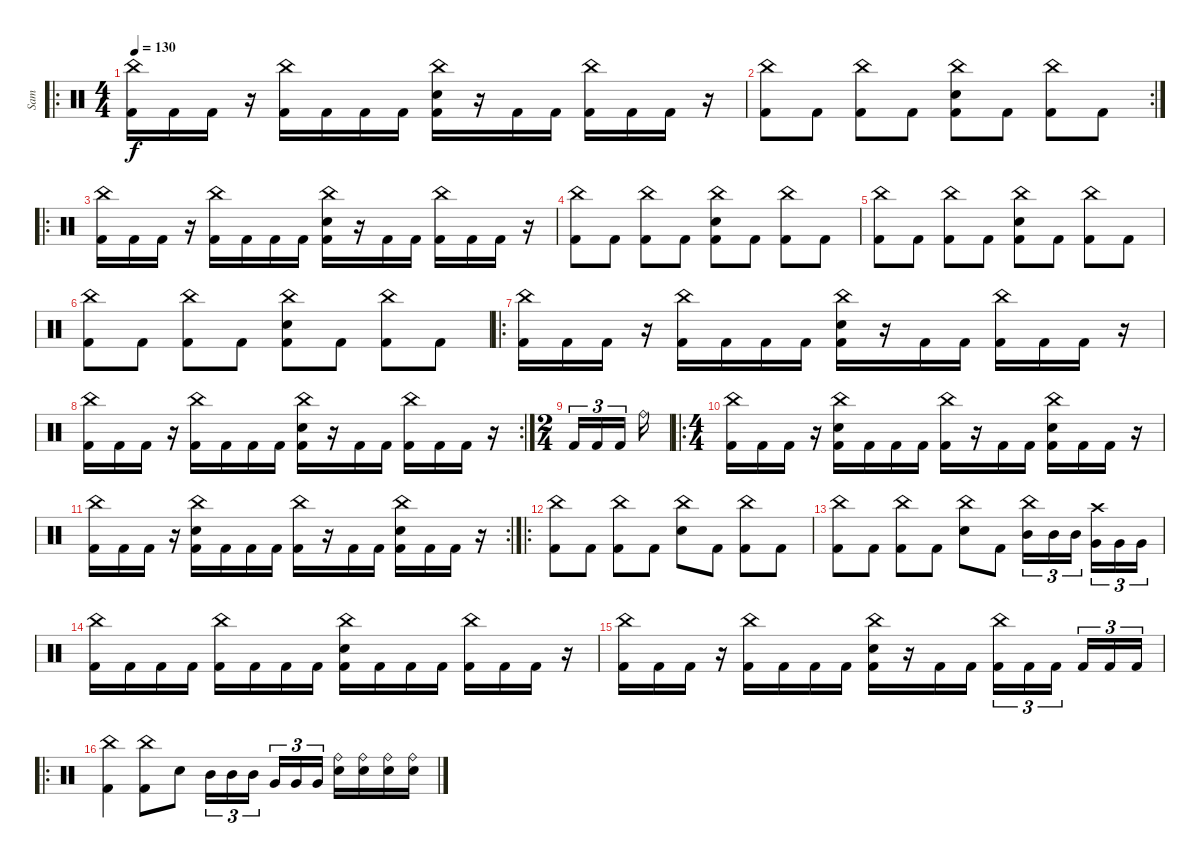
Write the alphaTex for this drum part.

\track ("Sam" "Sam") {instrument percussion}
\staff {score}
\articulation defaults
\ro
\ts (4 4)
\tempo 130
\clef neutral
\ks c
("China (hit)" "Kick (hit) 2").16{dy f} "Kick (hit) 2".16 "Kick (hit) 2".16 r.16 ("China (hit)" "Kick (hit) 2").16 "Kick (hit) 2".16 "Kick (hit) 2".16 "Kick (hit) 2".16 ("China (hit)" "Snare (hit) 2" "Kick (hit) 2").16 r.16 "Kick (hit) 2".16 "Kick (hit) 2".16 ("China (hit)" "Kick (hit) 2").16 "Kick (hit) 2".16 "Kick (hit) 2".16 r.16 |
\rc 2
("China (hit)" "Kick (hit) 2").8 "Kick (hit) 2".8 ("China (hit)" "Kick (hit) 2").8 "Kick (hit) 2".8 ("China (hit)" "Snare (hit) 2" "Kick (hit) 2").8 "Kick (hit) 2".8 ("China (hit)" "Kick (hit) 2").8 "Kick (hit) 2".8 |
\ro
("China (hit)" "Kick (hit) 2").16 "Kick (hit) 2".16 "Kick (hit) 2".16 r.16 ("China (hit)" "Kick (hit) 2").16 "Kick (hit) 2".16 "Kick (hit) 2".16 "Kick (hit) 2".16 ("China (hit)" "Snare (hit) 2" "Kick (hit) 2").16 r.16 "Kick (hit) 2".16 "Kick (hit) 2".16 ("China (hit)" "Kick (hit) 2").16 "Kick (hit) 2".16 "Kick (hit) 2".16 r.16 |
("China (hit)" "Kick (hit) 2").8 "Kick (hit) 2".8 ("China (hit)" "Kick (hit) 2").8 "Kick (hit) 2".8 ("China (hit)" "Snare (hit) 2" "Kick (hit) 2").8 "Kick (hit) 2".8 ("China (hit)" "Kick (hit) 2").8 "Kick (hit) 2".8 |
("China (hit)" "Kick (hit) 2").8 "Kick (hit) 2".8 ("China (hit)" "Kick (hit) 2").8 "Kick (hit) 2".8 ("China (hit)" "Snare (hit) 2" "Kick (hit) 2").8 "Kick (hit) 2".8 ("China (hit)" "Kick (hit) 2").8 "Kick (hit) 2".8 |
("China (hit)" "Kick (hit) 2").8 "Kick (hit) 2".8 ("China (hit)" "Kick (hit) 2").8 "Kick (hit) 2".8 ("China (hit)" "Snare (hit) 2" "Kick (hit) 2").8 "Kick (hit) 2".8 ("China (hit)" "Kick (hit) 2").8 "Kick (hit) 2".8 |
\ro
("China (hit)" "Kick (hit) 2").16 "Kick (hit) 2".16 "Kick (hit) 2".16 r.16 ("China (hit)" "Kick (hit) 2").16 "Kick (hit) 2".16 "Kick (hit) 2".16 "Kick (hit) 2".16 ("China (hit)" "Snare (hit) 2" "Kick (hit) 2").16 r.16 "Kick (hit) 2".16 "Kick (hit) 2".16 ("China (hit)" "Kick (hit) 2").16 "Kick (hit) 2".16 "Kick (hit) 2".16 r.16 |
\rc 2
("China (hit)" "Kick (hit) 2").16 "Kick (hit) 2".16 "Kick (hit) 2".16 r.16 ("China (hit)" "Kick (hit) 2").16 "Kick (hit) 2".16 "Kick (hit) 2".16 "Kick (hit) 2".16 ("China (hit)" "Snare (hit) 2" "Kick (hit) 2").16 r.16 "Kick (hit) 2".16 "Kick (hit) 2".16 ("China (hit)" "Kick (hit) 2").16 "Kick (hit) 2".16 "Kick (hit) 2".16 r.16 |
\ts (2 4)
"Kick (hit) 2".16{tu (3 2)} "Kick (hit) 2".16{tu (3 2)} "Kick (hit) 2".16{tu (3 2) beam splitsecondary} "Ride (bell)".16 |
\ro
\ts (4 4)
("China (hit)" "Kick (hit) 2").16 "Kick (hit) 2".16 "Kick (hit) 2".16 r.16 ("China (hit)" "Snare (hit) 2" "Kick (hit) 2").16 "Kick (hit) 2".16 "Kick (hit) 2".16 "Kick (hit) 2".16 ("China (hit)" "Kick (hit) 2").16 r.16 "Kick (hit) 2".16 "Kick (hit) 2".16 ("China (hit)" "Snare (hit) 2" "Kick (hit) 2").16 "Kick (hit) 2".16 "Kick (hit) 2".16 r.16 |
\rc 2
("China (hit)" "Kick (hit) 2").16 "Kick (hit) 2".16 "Kick (hit) 2".16 r.16 ("China (hit)" "Snare (hit) 2" "Kick (hit) 2").16 "Kick (hit) 2".16 "Kick (hit) 2".16 "Kick (hit) 2".16 ("China (hit)" "Kick (hit) 2").16 r.16 "Kick (hit) 2".16 "Kick (hit) 2".16 ("China (hit)" "Snare (hit) 2" "Kick (hit) 2").16 "Kick (hit) 2".16 "Kick (hit) 2".16 r.16 |
\ro
("China (hit)" "Kick (hit) 2").8 "Kick (hit) 2".8 ("China (hit)" "Kick (hit) 2").8 "Kick (hit) 2".8 ("China (hit)" "Snare (hit) 2").8 "Kick (hit) 2".8 ("China (hit)" "Kick (hit) 2").8 "Kick (hit) 2".8 |
("China (hit)" "Kick (hit) 2").8 "Kick (hit) 2".8 ("China (hit)" "Kick (hit) 2").8 "Kick (hit) 2".8 ("China (hit)" "Snare (hit) 2").8 "Kick (hit) 2".8 ("China (hit)" "Mid Tom (hit)").16{tu (3 2)} "Mid Tom (hit)".16{tu (3 2)} "Mid Tom (hit)".16{tu (3 2) beam splitsecondary} ("Crash high (hit)" "Very Low Tom (hit)").16{tu (3 2)} "Very Low Tom (hit)".16{tu (3 2)} "Very Low Tom (hit)".16{tu (3 2)} |
("China (hit)" "Kick (hit) 2").16 "Kick (hit) 2".16 "Kick (hit) 2".16 "Kick (hit) 2".16 ("China (hit)" "Kick (hit) 2").16 "Kick (hit) 2".16 "Kick (hit) 2".16 "Kick (hit) 2".16 ("China (hit)" "Snare (hit) 2" "Kick (hit) 2").16 "Kick (hit) 2".16 "Kick (hit) 2".16 "Kick (hit) 2".16 ("China (hit)" "Kick (hit) 2").16 "Kick (hit) 2".16 "Kick (hit) 2".16 r.16 |
("China (hit)" "Kick (hit) 2").16 "Kick (hit) 2".16 "Kick (hit) 2".16 r.16 ("China (hit)" "Kick (hit) 2").16 "Kick (hit) 2".16 "Kick (hit) 2".16 "Kick (hit) 2".16 ("China (hit)" "Snare (hit) 2" "Kick (hit) 2").16 r.16 "Kick (hit) 2".16 "Kick (hit) 2".16 ("China (hit)" "Kick (hit) 2").16{tu (3 2)} "Kick (hit) 2".16{tu (3 2)} "Kick (hit) 2".16{tu (3 2) beam splitsecondary} "Kick (hit) 2".16{tu (3 2)} "Kick (hit) 2".16{tu (3 2)} "Kick (hit) 2".16{tu (3 2)} |
\ro
("China (hit)" "Kick (hit) 2").4 ("China (hit)" "Kick (hit) 2").8 "Snare (hit) 2".8 "Mid Tom (hit)".16{tu (3 2)} "Mid Tom (hit)".16{tu (3 2)} "Mid Tom (hit)".16{tu (3 2) beam splitsecondary} "Very Low Tom (hit)".16{tu (3 2)} "Very Low Tom (hit)".16{tu (3 2)} "Very Low Tom (hit)".16{tu (3 2)} ("Ride (bell)" "Snare (hit) 2").16 ("Ride (bell)" "Snare (hit) 2").16 ("Ride (bell)" "Snare (hit) 2").16 ("Ride (bell)" "Snare (hit) 2").16
